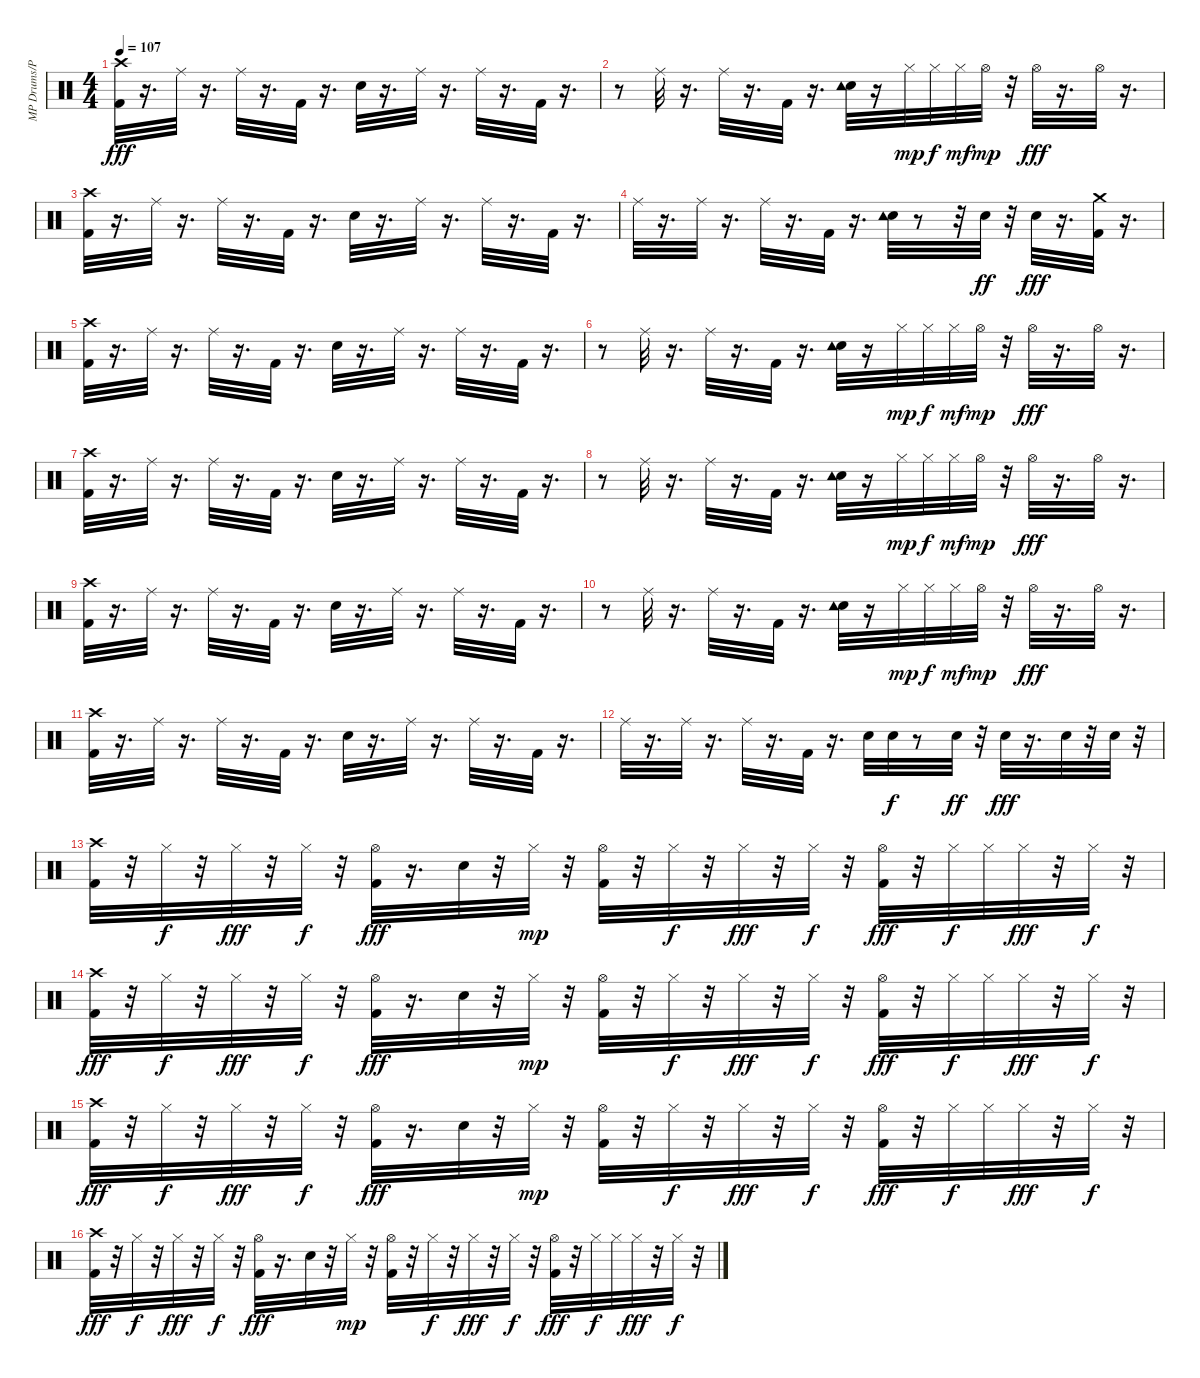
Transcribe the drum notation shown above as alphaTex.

\track ("MP Drums/Percussion" "MP Drums/P") {instrument percussion}
\staff {score}
\articulation defaults
\ts (4 4)
\tempo 107
\clef neutral
\ks c
("Kick (hit) 2" "Crash high (hit)").32{dy fff} r.16{d} "Ride (middle)".32 r.16{d} "Ride (middle)".32 r.16{d} "Kick (hit) 2".32 r.16{d} "Snare (hit) 2".32 r.16{d} "Ride (middle)".32 r.16{d} "Ride (middle)".32 r.16{d} "Kick (hit) 2".32 r.16{d} |
r.8 "Ride (middle)".32 r.16{d} "Ride (middle)".32 r.16{d} "Kick (hit) 2".32 r.16{d} ("Snare (hit) 2" "Tambourine (hit)").32 r.16 "Hi-Hat (closed)".32{dy mp} "Hi-Hat (closed)".32{dy f} "Hi-Hat (closed)".32{dy mf} "Hi-Hat (open)".32{dy mp} r.32 "Hi-Hat (open)".32{dy fff} r.16{d} "Hi-Hat (open)".32 r.16{d} |
("Kick (hit) 2" "Crash high (hit)").32 r.16{d} "Ride (middle)".32 r.16{d} "Ride (middle)".32 r.16{d} "Kick (hit) 2".32 r.16{d} "Snare (hit) 2".32 r.16{d} "Ride (middle)".32 r.16{d} "Ride (middle)".32 r.16{d} "Kick (hit) 2".32 r.16{d} |
"Ride (middle)".32 r.16{d} "Ride (middle)".32 r.16{d} "Ride (middle)".32 r.16{d} "Kick (hit) 2".32 r.16{d} ("Snare (hit) 2" "Tambourine (hit)").32 r.8 r.32 "Snare (hit) 2".32{dy ff} r.32 "Snare (hit) 2".32{dy fff} r.16{d} ("Kick (hit) 2" "Crash medium (hit)").32 r.16{d} |
("Kick (hit) 2" "Crash high (hit)").32 r.16{d} "Ride (middle)".32 r.16{d} "Ride (middle)".32 r.16{d} "Kick (hit) 2".32 r.16{d} "Snare (hit) 2".32 r.16{d} "Ride (middle)".32 r.16{d} "Ride (middle)".32 r.16{d} "Kick (hit) 2".32 r.16{d} |
r.8 "Ride (middle)".32 r.16{d} "Ride (middle)".32 r.16{d} "Kick (hit) 2".32 r.16{d} ("Snare (hit) 2" "Tambourine (hit)").32 r.16 "Hi-Hat (closed)".32{dy mp} "Hi-Hat (closed)".32{dy f} "Hi-Hat (closed)".32{dy mf} "Hi-Hat (open)".32{dy mp} r.32 "Hi-Hat (open)".32{dy fff} r.16{d} "Hi-Hat (open)".32 r.16{d} |
("Kick (hit) 2" "Crash high (hit)").32 r.16{d} "Ride (middle)".32 r.16{d} "Ride (middle)".32 r.16{d} "Kick (hit) 2".32 r.16{d} "Snare (hit) 2".32 r.16{d} "Ride (middle)".32 r.16{d} "Ride (middle)".32 r.16{d} "Kick (hit) 2".32 r.16{d} |
r.8 "Ride (middle)".32 r.16{d} "Ride (middle)".32 r.16{d} "Kick (hit) 2".32 r.16{d} ("Snare (hit) 2" "Tambourine (hit)").32 r.16 "Hi-Hat (closed)".32{dy mp} "Hi-Hat (closed)".32{dy f} "Hi-Hat (closed)".32{dy mf} "Hi-Hat (open)".32{dy mp} r.32 "Hi-Hat (open)".32{dy fff} r.16{d} "Hi-Hat (open)".32 r.16{d} |
("Kick (hit) 2" "Crash high (hit)").32 r.16{d} "Ride (middle)".32 r.16{d} "Ride (middle)".32 r.16{d} "Kick (hit) 2".32 r.16{d} "Snare (hit) 2".32 r.16{d} "Ride (middle)".32 r.16{d} "Ride (middle)".32 r.16{d} "Kick (hit) 2".32 r.16{d} |
r.8 "Ride (middle)".32 r.16{d} "Ride (middle)".32 r.16{d} "Kick (hit) 2".32 r.16{d} ("Snare (hit) 2" "Tambourine (hit)").32 r.16 "Hi-Hat (closed)".32{dy mp} "Hi-Hat (closed)".32{dy f} "Hi-Hat (closed)".32{dy mf} "Hi-Hat (open)".32{dy mp} r.32 "Hi-Hat (open)".32{dy fff} r.16{d} "Hi-Hat (open)".32 r.16{d} |
("Kick (hit) 2" "Crash high (hit)").32 r.16{d} "Ride (middle)".32 r.16{d} "Ride (middle)".32 r.16{d} "Kick (hit) 2".32 r.16{d} "Snare (hit) 2".32 r.16{d} "Ride (middle)".32 r.16{d} "Ride (middle)".32 r.16{d} "Kick (hit) 2".32 r.16{d} |
"Ride (middle)".32 r.16{d} "Ride (middle)".32 r.16{d} "Ride (middle)".32 r.16{d} "Kick (hit) 2".32 r.16{d} "Snare (hit) 2".32 "Snare (hit) 2".32{dy f} r.8 "Snare (hit) 2".32{dy ff} r.32 "Snare (hit) 2".32{dy fff} r.16{d} "Snare (hit) 2".32 r.32 "Snare (hit) 2".32 r.32 |
("Kick (hit) 2" "Crash high (hit)").32 r.32 "Hi-Hat (closed)".32{dy f} r.32 "Hi-Hat (closed)".32{dy fff} r.32 "Hi-Hat (closed)".32{dy f} r.32 ("Kick (hit) 2" "Hi-Hat (open)").32{dy fff} r.16{d} "Snare (hit) 2".32 r.32 "Hi-Hat (closed)".32{dy mp} r.32 ("Kick (hit) 2" "Hi-Hat (open)").32 r.32 "Hi-Hat (closed)".32{dy f} r.32 "Hi-Hat (closed)".32{dy fff} r.32 "Hi-Hat (closed)".32{dy f} r.32 ("Kick (hit) 2" "Hi-Hat (open)").32{dy fff} r.32 "Hi-Hat (closed)".32{dy f} "Hi-Hat (closed)".32 "Hi-Hat (closed)".32{dy fff} r.32 "Hi-Hat (closed)".32{dy f} r.32 |
("Kick (hit) 2" "Crash high (hit)").32{dy fff} r.32 "Hi-Hat (closed)".32{dy f} r.32 "Hi-Hat (closed)".32{dy fff} r.32 "Hi-Hat (closed)".32{dy f} r.32 ("Kick (hit) 2" "Hi-Hat (open)").32{dy fff} r.16{d} "Snare (hit) 2".32 r.32 "Hi-Hat (closed)".32{dy mp} r.32 ("Kick (hit) 2" "Hi-Hat (open)").32 r.32 "Hi-Hat (closed)".32{dy f} r.32 "Hi-Hat (closed)".32{dy fff} r.32 "Hi-Hat (closed)".32{dy f} r.32 ("Kick (hit) 2" "Hi-Hat (open)").32{dy fff} r.32 "Hi-Hat (closed)".32{dy f} "Hi-Hat (closed)".32 "Hi-Hat (closed)".32{dy fff} r.32 "Hi-Hat (closed)".32{dy f} r.32 |
("Kick (hit) 2" "Crash high (hit)").32{dy fff} r.32 "Hi-Hat (closed)".32{dy f} r.32 "Hi-Hat (closed)".32{dy fff} r.32 "Hi-Hat (closed)".32{dy f} r.32 ("Kick (hit) 2" "Hi-Hat (open)").32{dy fff} r.16{d} "Snare (hit) 2".32 r.32 "Hi-Hat (closed)".32{dy mp} r.32 ("Kick (hit) 2" "Hi-Hat (open)").32 r.32 "Hi-Hat (closed)".32{dy f} r.32 "Hi-Hat (closed)".32{dy fff} r.32 "Hi-Hat (closed)".32{dy f} r.32 ("Kick (hit) 2" "Hi-Hat (open)").32{dy fff} r.32 "Hi-Hat (closed)".32{dy f} "Hi-Hat (closed)".32 "Hi-Hat (closed)".32{dy fff} r.32 "Hi-Hat (closed)".32{dy f} r.32 |
("Kick (hit) 2" "Crash high (hit)").32{dy fff} r.32 "Hi-Hat (closed)".32{dy f} r.32 "Hi-Hat (closed)".32{dy fff} r.32 "Hi-Hat (closed)".32{dy f} r.32 ("Kick (hit) 2" "Hi-Hat (open)").32{dy fff} r.16{d} "Snare (hit) 2".32 r.32 "Hi-Hat (closed)".32{dy mp} r.32 ("Kick (hit) 2" "Hi-Hat (open)").32 r.32 "Hi-Hat (closed)".32{dy f} r.32 "Hi-Hat (closed)".32{dy fff} r.32 "Hi-Hat (closed)".32{dy f} r.32 ("Kick (hit) 2" "Hi-Hat (open)").32{dy fff} r.32 "Hi-Hat (closed)".32{dy f} "Hi-Hat (closed)".32 "Hi-Hat (closed)".32{dy fff} r.32 "Hi-Hat (closed)".32{dy f} r.32
